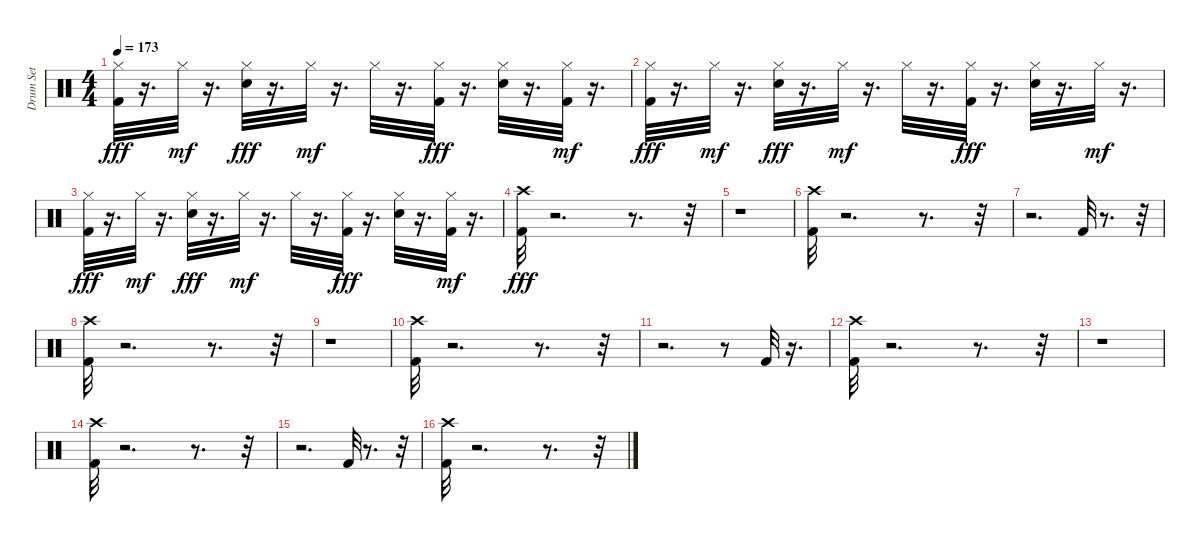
\track ("Drum Set" "Drum Set") {instrument percussion}
\staff {score}
\articulation defaults
\ts (4 4)
\tempo 173
\clef neutral
\ks c
("Hi-Hat (closed)" "Kick (hit) 2").32{dy fff} r.16{d} "Hi-Hat (closed)".32{dy mf} r.16{d} ("Hi-Hat (closed)" "Electric Snare (hit)").32{dy fff} r.16{d} "Hi-Hat (closed)".32{dy mf} r.16{d} "Hi-Hat (closed)".32 r.16{d} ("Hi-Hat (closed)" "Kick (hit) 2").32{dy fff} r.16{d} ("Hi-Hat (closed)" "Electric Snare (hit)").32 r.16{d} ("Kick (hit) 2" "Hi-Hat (closed)").32{dy mf} r.16{d} |
("Hi-Hat (closed)" "Kick (hit) 2").32{dy fff} r.16{d} "Hi-Hat (closed)".32{dy mf} r.16{d} ("Hi-Hat (closed)" "Electric Snare (hit)").32{dy fff} r.16{d} "Hi-Hat (closed)".32{dy mf} r.16{d} "Hi-Hat (closed)".32 r.16{d} ("Hi-Hat (closed)" "Kick (hit) 2").32{dy fff} r.16{d} ("Hi-Hat (closed)" "Electric Snare (hit)").32 r.16{d} "Hi-Hat (closed)".32{dy mf} r.16{d} |
("Hi-Hat (closed)" "Kick (hit) 2").32{dy fff} r.16{d} "Hi-Hat (closed)".32{dy mf} r.16{d} ("Hi-Hat (closed)" "Electric Snare (hit)").32{dy fff} r.16{d} "Hi-Hat (closed)".32{dy mf} r.16{d} "Hi-Hat (closed)".32 r.16{d} ("Hi-Hat (closed)" "Kick (hit) 2").32{dy fff} r.16{d} ("Hi-Hat (closed)" "Electric Snare (hit)").32 r.16{d} ("Kick (hit) 2" "Hi-Hat (closed)").32{dy mf} r.16{d} |
("Crash high (hit)" "Kick (hit) 2").32{dy fff} r.2{d} r.8{d} r.32 |
r.1 |
("Crash high (hit)" "Kick (hit) 2").32 r.2{d} r.8{d} r.32 |
r.2{d} "Kick (hit) 2".32 r.8{d} r.32 |
("Kick (hit) 2" "Crash high (hit)").32 r.2{d} r.8{d} r.32 |
r.1 |
("Kick (hit) 2" "Crash high (hit)").32 r.2{d} r.8{d} r.32 |
r.2{d} r.8 "Kick (hit) 2".32 r.16{d} |
("Crash high (hit)" "Kick (hit) 2").32 r.2{d} r.8{d} r.32 |
r.1 |
("Crash high (hit)" "Kick (hit) 2").32 r.2{d} r.8{d} r.32 |
r.2{d} "Kick (hit) 2".32 r.8{d} r.32 |
("Crash high (hit)" "Kick (hit) 2").32 r.2{d} r.8{d} r.32
